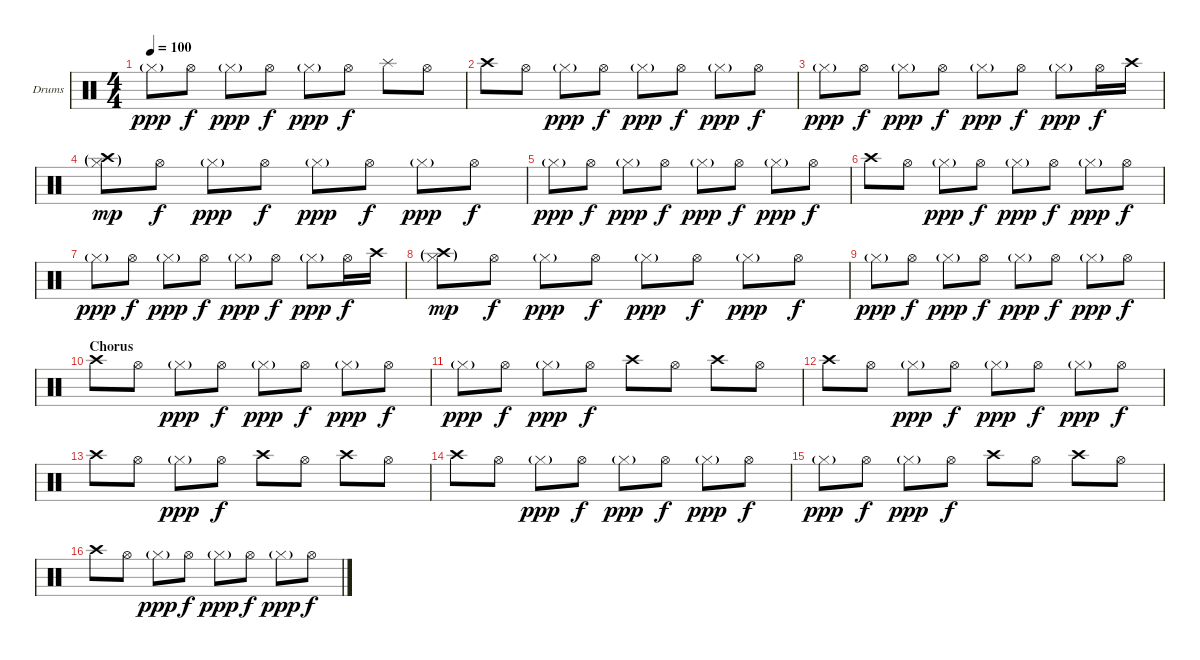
\bracketExtendMode groupsimilarinstruments
\firstSystemTrackNameOrientation horizontal
\otherSystemsTrackNameOrientation horizontal
\track ("Cymbals right" "Drums") {instrument percussion}
\staff {score}
\articulation defaults
\ts (4 4)
\tempo 100
\clef neutral
\ks c "Hi-Hat (closed)"{g}.8{dy ppp} "Hi-Hat (open)".8{dy f} "Hi-Hat (closed)"{g}.8{dy ppp} "Hi-Hat (open)".8{dy f} "Hi-Hat (closed)"{g}.8{dy ppp} "Hi-Hat (open)".8{dy f} "Splash (hit)".8 "Hi-Hat (open)".8
|
"Crash high (hit)".8 "Hi-Hat (open)".8 "Hi-Hat (closed)"{g}.8{dy ppp} "Hi-Hat (open)".8{dy f} "Hi-Hat (closed)"{g}.8{dy ppp} "Hi-Hat (open)".8{dy f} "Hi-Hat (closed)"{g}.8{dy ppp} "Hi-Hat (open)".8{dy f} |
"Hi-Hat (closed)"{g}.8{dy ppp} "Hi-Hat (open)".8{dy f} "Hi-Hat (closed)"{g}.8{dy ppp} "Hi-Hat (open)".8{dy f} "Hi-Hat (closed)"{g}.8{dy ppp} "Hi-Hat (open)".8{dy f} "Hi-Hat (closed)"{g}.8{dy ppp} "Hi-Hat (open)".16{dy f} "Crash high (hit)".16 |
("Crash high (hit)"{g} "Hi-Hat (closed)"{g}).8{dy mp} "Hi-Hat (open)".8{dy f} "Hi-Hat (closed)"{g}.8{dy ppp} "Hi-Hat (open)".8{dy f} "Hi-Hat (closed)"{g}.8{dy ppp} "Hi-Hat (open)".8{dy f} "Hi-Hat (closed)"{g}.8{dy ppp} "Hi-Hat (open)".8{dy f} |
"Hi-Hat (closed)"{g}.8{dy ppp} "Hi-Hat (open)".8{dy f} "Hi-Hat (closed)"{g}.8{dy ppp} "Hi-Hat (open)".8{dy f} "Hi-Hat (closed)"{g}.8{dy ppp} "Hi-Hat (open)".8{dy f} "Hi-Hat (closed)"{g}.8{dy ppp} "Hi-Hat (open)".8{dy f} |
"Crash high (hit)".8 "Hi-Hat (open)".8 "Hi-Hat (closed)"{g}.8{dy ppp} "Hi-Hat (open)".8{dy f} "Hi-Hat (closed)"{g}.8{dy ppp} "Hi-Hat (open)".8{dy f} "Hi-Hat (closed)"{g}.8{dy ppp} "Hi-Hat (open)".8{dy f} |
"Hi-Hat (closed)"{g}.8{dy ppp} "Hi-Hat (open)".8{dy f} "Hi-Hat (closed)"{g}.8{dy ppp} "Hi-Hat (open)".8{dy f} "Hi-Hat (closed)"{g}.8{dy ppp} "Hi-Hat (open)".8{dy f} "Hi-Hat (closed)"{g}.8{dy ppp} "Hi-Hat (open)".16{dy f} "Crash high (hit)".16 |
("Crash high (hit)"{g} "Hi-Hat (closed)"{g}).8{dy mp} "Hi-Hat (open)".8{dy f} "Hi-Hat (closed)"{g}.8{dy ppp} "Hi-Hat (open)".8{dy f} "Hi-Hat (closed)"{g}.8{dy ppp} "Hi-Hat (open)".8{dy f} "Hi-Hat (closed)"{g}.8{dy ppp} "Hi-Hat (open)".8{dy f} |
"Hi-Hat (closed)"{g}.8{dy ppp} "Hi-Hat (open)".8{dy f} "Hi-Hat (closed)"{g}.8{dy ppp} "Hi-Hat (open)".8{dy f} "Hi-Hat (closed)"{g}.8{dy ppp} "Hi-Hat (open)".8{dy f} "Hi-Hat (closed)"{g}.8{dy ppp} "Hi-Hat (open)".8{dy f} |
\section ("" "Chorus")
"Crash high (hit)".8 "Hi-Hat (open)".8 "Hi-Hat (closed)"{g}.8{dy ppp} "Hi-Hat (open)".8{dy f} "Hi-Hat (closed)"{g}.8{dy ppp} "Hi-Hat (open)".8{dy f} "Hi-Hat (closed)"{g}.8{dy ppp} "Hi-Hat (open)".8{dy f} |
"Hi-Hat (closed)"{g}.8{dy ppp} "Hi-Hat (open)".8{dy f} "Hi-Hat (closed)"{g}.8{dy ppp} "Hi-Hat (open)".8{dy f} "Crash high (hit)".8 "Hi-Hat (open)".8 "Crash high (hit)".8 "Hi-Hat (open)".8 |
"Crash high (hit)".8 "Hi-Hat (open)".8 "Hi-Hat (closed)"{g}.8{dy ppp} "Hi-Hat (open)".8{dy f} "Hi-Hat (closed)"{g}.8{dy ppp} "Hi-Hat (open)".8{dy f} "Hi-Hat (closed)"{g}.8{dy ppp} "Hi-Hat (open)".8{dy f} |
"Crash high (hit)".8 "Hi-Hat (open)".8 "Hi-Hat (closed)"{g}.8{dy ppp} "Hi-Hat (open)".8{dy f} "Crash high (hit)".8 "Hi-Hat (open)".8 "Crash high (hit)".8 "Hi-Hat (open)".8 |
"Crash high (hit)".8 "Hi-Hat (open)".8 "Hi-Hat (closed)"{g}.8{dy ppp} "Hi-Hat (open)".8{dy f} "Hi-Hat (closed)"{g}.8{dy ppp} "Hi-Hat (open)".8{dy f} "Hi-Hat (closed)"{g}.8{dy ppp} "Hi-Hat (open)".8{dy f} |
"Hi-Hat (closed)"{g}.8{dy ppp} "Hi-Hat (open)".8{dy f} "Hi-Hat (closed)"{g}.8{dy ppp} "Hi-Hat (open)".8{dy f} "Crash high (hit)".8 "Hi-Hat (open)".8 "Crash high (hit)".8 "Hi-Hat (open)".8 |
"Crash high (hit)".8 "Hi-Hat (open)".8 "Hi-Hat (closed)"{g}.8{dy ppp} "Hi-Hat (open)".8{dy f} "Hi-Hat (closed)"{g}.8{dy ppp} "Hi-Hat (open)".8{dy f} "Hi-Hat (closed)"{g}.8{dy ppp} "Hi-Hat (open)".8{dy f}
